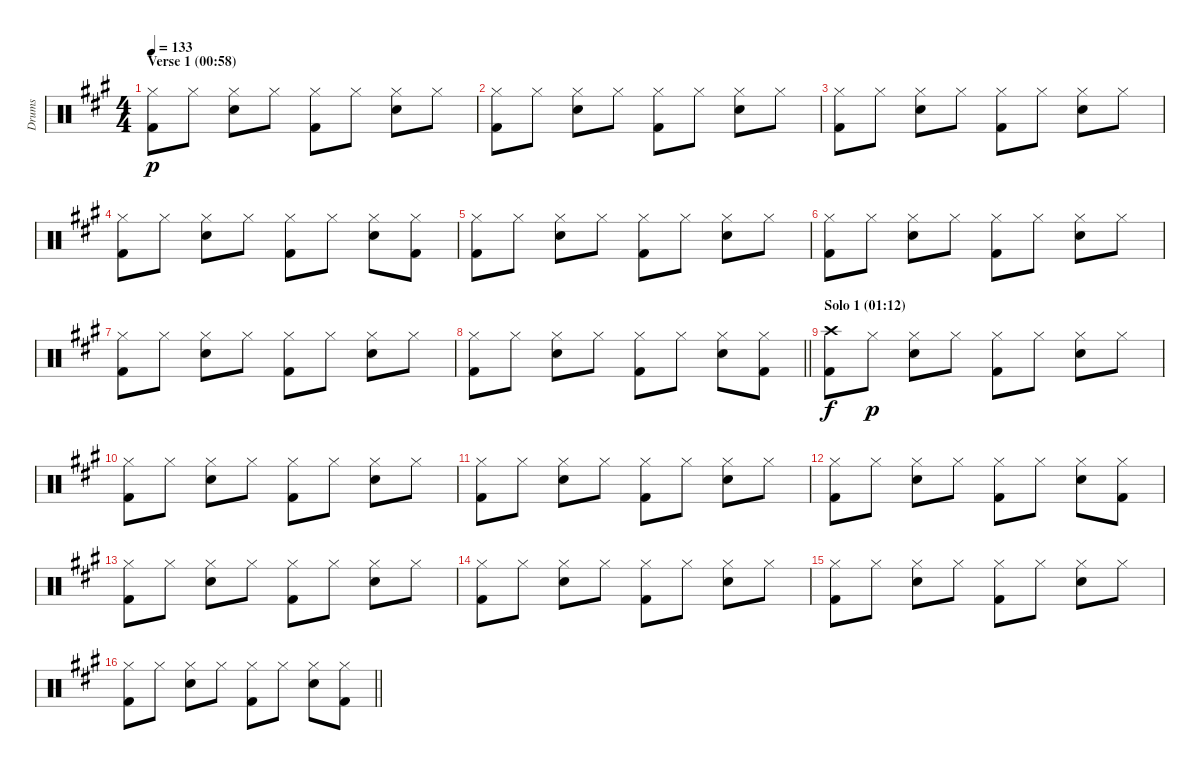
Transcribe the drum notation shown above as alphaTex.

\track ("Drums" "Drums") {instrument percussion}
\staff {score}
\articulation defaults
\ts (4 4)
\section ("" "Verse 1 (00:58)")
\tempo 133
\clef neutral
\ks a
("Hi-Hat (closed)" "Kick (hit) 2").8{dy p} "Hi-Hat (closed)".8 ("Hi-Hat (closed)" "Snare (hit) 2").8 "Hi-Hat (closed)".8 ("Hi-Hat (closed)" "Kick (hit) 2").8 "Hi-Hat (closed)".8 ("Hi-Hat (closed)" "Snare (hit) 2").8 "Hi-Hat (closed)".8 |
("Hi-Hat (closed)" "Kick (hit) 2").8 "Hi-Hat (closed)".8 ("Hi-Hat (closed)" "Snare (hit) 2").8 "Hi-Hat (closed)".8 ("Hi-Hat (closed)" "Kick (hit) 2").8 "Hi-Hat (closed)".8 ("Hi-Hat (closed)" "Snare (hit) 2").8 "Hi-Hat (closed)".8 |
("Hi-Hat (closed)" "Kick (hit) 2").8 "Hi-Hat (closed)".8 ("Hi-Hat (closed)" "Snare (hit) 2").8 "Hi-Hat (closed)".8 ("Hi-Hat (closed)" "Kick (hit) 2").8 "Hi-Hat (closed)".8 ("Hi-Hat (closed)" "Snare (hit) 2").8 "Hi-Hat (closed)".8 |
("Hi-Hat (closed)" "Kick (hit) 2").8 "Hi-Hat (closed)".8 ("Hi-Hat (closed)" "Snare (hit) 2").8 "Hi-Hat (closed)".8 ("Hi-Hat (closed)" "Kick (hit) 2").8 "Hi-Hat (closed)".8 ("Hi-Hat (closed)" "Snare (hit) 2").8 ("Hi-Hat (closed)" "Kick (hit) 2").8 |
("Hi-Hat (closed)" "Kick (hit) 2").8 "Hi-Hat (closed)".8 ("Hi-Hat (closed)" "Snare (hit) 2").8 "Hi-Hat (closed)".8 ("Hi-Hat (closed)" "Kick (hit) 2").8 "Hi-Hat (closed)".8 ("Hi-Hat (closed)" "Snare (hit) 2").8 "Hi-Hat (closed)".8 |
("Hi-Hat (closed)" "Kick (hit) 2").8 "Hi-Hat (closed)".8 ("Hi-Hat (closed)" "Snare (hit) 2").8 "Hi-Hat (closed)".8 ("Hi-Hat (closed)" "Kick (hit) 2").8 "Hi-Hat (closed)".8 ("Hi-Hat (closed)" "Snare (hit) 2").8 "Hi-Hat (closed)".8 |
("Hi-Hat (closed)" "Kick (hit) 2").8 "Hi-Hat (closed)".8 ("Hi-Hat (closed)" "Snare (hit) 2").8 "Hi-Hat (closed)".8 ("Hi-Hat (closed)" "Kick (hit) 2").8 "Hi-Hat (closed)".8 ("Hi-Hat (closed)" "Snare (hit) 2").8 "Hi-Hat (closed)".8 |
\barLineRight lightlight
("Hi-Hat (closed)" "Kick (hit) 2").8 "Hi-Hat (closed)".8 ("Hi-Hat (closed)" "Snare (hit) 2").8 "Hi-Hat (closed)".8 ("Hi-Hat (closed)" "Kick (hit) 2").8 "Hi-Hat (closed)".8 ("Hi-Hat (closed)" "Snare (hit) 2").8 ("Hi-Hat (closed)" "Kick (hit) 2").8 |
\section ("" "Solo 1 (01:12)")
("Crash high (hit)" "Kick (hit) 2").8{dy f} "Hi-Hat (closed)".8{dy p} ("Hi-Hat (closed)" "Snare (hit) 2").8 "Hi-Hat (closed)".8 ("Hi-Hat (closed)" "Kick (hit) 2").8 "Hi-Hat (closed)".8 ("Hi-Hat (closed)" "Snare (hit) 2").8 "Hi-Hat (closed)".8 |
("Hi-Hat (closed)" "Kick (hit) 2").8 "Hi-Hat (closed)".8 ("Hi-Hat (closed)" "Snare (hit) 2").8 "Hi-Hat (closed)".8 ("Hi-Hat (closed)" "Kick (hit) 2").8 "Hi-Hat (closed)".8 ("Hi-Hat (closed)" "Snare (hit) 2").8 "Hi-Hat (closed)".8 |
("Hi-Hat (closed)" "Kick (hit) 2").8 "Hi-Hat (closed)".8 ("Hi-Hat (closed)" "Snare (hit) 2").8 "Hi-Hat (closed)".8 ("Hi-Hat (closed)" "Kick (hit) 2").8 "Hi-Hat (closed)".8 ("Hi-Hat (closed)" "Snare (hit) 2").8 "Hi-Hat (closed)".8 |
("Hi-Hat (closed)" "Kick (hit) 2").8 "Hi-Hat (closed)".8 ("Hi-Hat (closed)" "Snare (hit) 2").8 "Hi-Hat (closed)".8 ("Hi-Hat (closed)" "Kick (hit) 2").8 "Hi-Hat (closed)".8 ("Hi-Hat (closed)" "Snare (hit) 2").8 ("Hi-Hat (closed)" "Kick (hit) 2").8 |
("Hi-Hat (closed)" "Kick (hit) 2").8 "Hi-Hat (closed)".8 ("Hi-Hat (closed)" "Snare (hit) 2").8 "Hi-Hat (closed)".8 ("Hi-Hat (closed)" "Kick (hit) 2").8 "Hi-Hat (closed)".8 ("Hi-Hat (closed)" "Snare (hit) 2").8 "Hi-Hat (closed)".8 |
("Hi-Hat (closed)" "Kick (hit) 2").8 "Hi-Hat (closed)".8 ("Hi-Hat (closed)" "Snare (hit) 2").8 "Hi-Hat (closed)".8 ("Hi-Hat (closed)" "Kick (hit) 2").8 "Hi-Hat (closed)".8 ("Hi-Hat (closed)" "Snare (hit) 2").8 "Hi-Hat (closed)".8 |
("Hi-Hat (closed)" "Kick (hit) 2").8 "Hi-Hat (closed)".8 ("Hi-Hat (closed)" "Snare (hit) 2").8 "Hi-Hat (closed)".8 ("Hi-Hat (closed)" "Kick (hit) 2").8 "Hi-Hat (closed)".8 ("Hi-Hat (closed)" "Snare (hit) 2").8 "Hi-Hat (closed)".8 |
\barLineRight lightlight
("Hi-Hat (closed)" "Kick (hit) 2").8 "Hi-Hat (closed)".8 ("Hi-Hat (closed)" "Snare (hit) 2").8 "Hi-Hat (closed)".8 ("Hi-Hat (closed)" "Kick (hit) 2").8 "Hi-Hat (closed)".8 ("Hi-Hat (closed)" "Snare (hit) 2").8 ("Hi-Hat (closed)" "Kick (hit) 2").8
